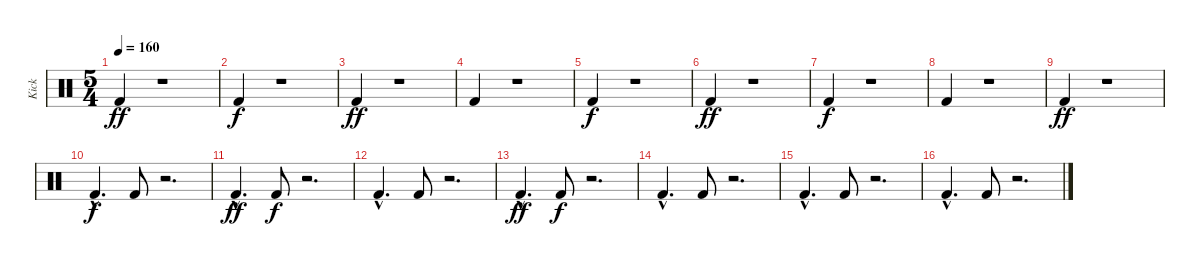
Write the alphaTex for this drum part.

\track ("Kick" "Kick") {instrument percussion}
\staff {score}
\articulation defaults
\ts (5 4)
\tempo 160
\clef neutral
\ks c "Kick (hit) 2".4{dy ff}
r.1 |
"Kick (hit) 2".4{dy f} r.1 |
"Kick (hit) 2".4{dy ff} r.1 |
"Kick (hit) 2".4 r.1 |
"Kick (hit) 2".4{dy f} r.1 |
"Kick (hit) 2".4{dy ff} r.1 |
"Kick (hit) 2".4{dy f} r.1 |
"Kick (hit) 2".4 r.1 |
"Kick (hit) 2".4{dy ff} r.1 |
"Kick (hit) 2"{hac}.4{d dy f} "Kick (hit) 2".8 r.2{d} |
"Kick (hit) 2"{hac}.4{d dy ff} "Kick (hit) 2".8{dy f} r.2{d} |
"Kick (hit) 2"{hac}.4{d} "Kick (hit) 2".8 r.2{d} |
"Kick (hit) 2"{hac}.4{d dy ff} "Kick (hit) 2".8{dy f} r.2{d} |
"Kick (hit) 2"{hac}.4{d} "Kick (hit) 2".8 r.2{d} |
"Kick (hit) 2"{hac}.4{d} "Kick (hit) 2".8 r.2{d} |
"Kick (hit) 2"{hac}.4{d} "Kick (hit) 2".8 r.2{d}
